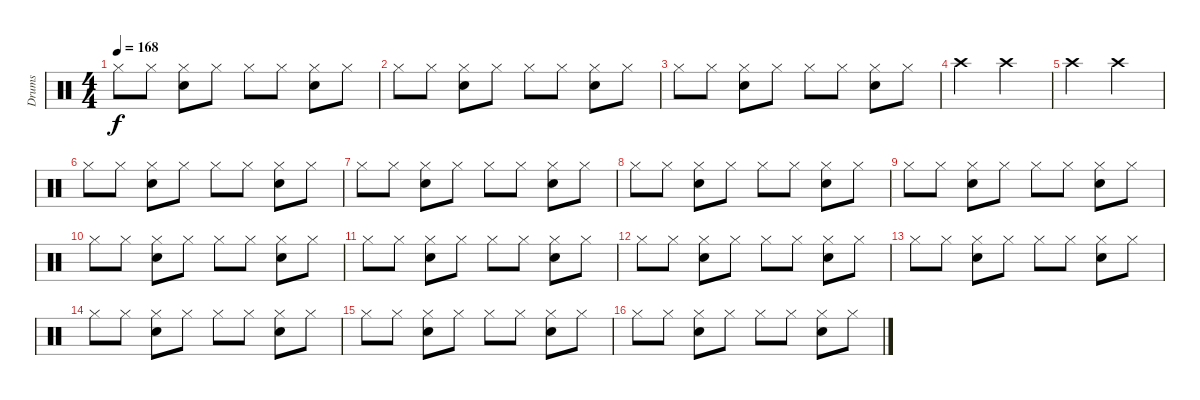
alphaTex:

\track ("Drums" "Drums") {instrument percussion}
\staff {score}
\articulation defaults
\ts (4 4)
\tempo 168
\clef neutral
\ks c "Hi-Hat (closed)".8{dy f} "Hi-Hat (closed)".8
("Hi-Hat (closed)" "Electric Snare (hit)").8 "Hi-Hat (closed)".8 "Hi-Hat (closed)".8 "Hi-Hat (closed)".8 ("Hi-Hat (closed)" "Electric Snare (hit)").8 "Hi-Hat (closed)".8 |
"Hi-Hat (closed)".8 "Hi-Hat (closed)".8 ("Hi-Hat (closed)" "Electric Snare (hit)").8 "Hi-Hat (closed)".8 "Hi-Hat (closed)".8 "Hi-Hat (closed)".8 ("Hi-Hat (closed)" "Electric Snare (hit)").8 "Hi-Hat (closed)".8 |
"Hi-Hat (closed)".8 "Hi-Hat (closed)".8 ("Hi-Hat (closed)" "Electric Snare (hit)").8 "Hi-Hat (closed)".8 "Hi-Hat (closed)".8 "Hi-Hat (closed)".8 ("Hi-Hat (closed)" "Electric Snare (hit)").8 "Hi-Hat (closed)".8 |
"Crash high (hit)".2 "Crash high (hit)".2 |
"Crash high (hit)".2 "Crash high (hit)".2 |
"Hi-Hat (closed)".8 "Hi-Hat (closed)".8 ("Hi-Hat (closed)" "Electric Snare (hit)").8 "Hi-Hat (closed)".8 "Hi-Hat (closed)".8 "Hi-Hat (closed)".8 ("Hi-Hat (closed)" "Electric Snare (hit)").8 "Hi-Hat (closed)".8 |
"Hi-Hat (closed)".8 "Hi-Hat (closed)".8 ("Hi-Hat (closed)" "Electric Snare (hit)").8 "Hi-Hat (closed)".8 "Hi-Hat (closed)".8 "Hi-Hat (closed)".8 ("Hi-Hat (closed)" "Electric Snare (hit)").8 "Hi-Hat (closed)".8 |
"Hi-Hat (closed)".8 "Hi-Hat (closed)".8 ("Hi-Hat (closed)" "Electric Snare (hit)").8 "Hi-Hat (closed)".8 "Hi-Hat (closed)".8 "Hi-Hat (closed)".8 ("Hi-Hat (closed)" "Electric Snare (hit)").8 "Hi-Hat (closed)".8 |
"Hi-Hat (closed)".8 "Hi-Hat (closed)".8 ("Hi-Hat (closed)" "Electric Snare (hit)").8 "Hi-Hat (closed)".8 "Hi-Hat (closed)".8 "Hi-Hat (closed)".8 ("Hi-Hat (closed)" "Electric Snare (hit)").8 "Hi-Hat (closed)".8 |
"Hi-Hat (closed)".8 "Hi-Hat (closed)".8 ("Hi-Hat (closed)" "Electric Snare (hit)").8 "Hi-Hat (closed)".8 "Hi-Hat (closed)".8 "Hi-Hat (closed)".8 ("Hi-Hat (closed)" "Electric Snare (hit)").8 "Hi-Hat (closed)".8 |
"Hi-Hat (closed)".8 "Hi-Hat (closed)".8 ("Hi-Hat (closed)" "Electric Snare (hit)").8 "Hi-Hat (closed)".8 "Hi-Hat (closed)".8 "Hi-Hat (closed)".8 ("Hi-Hat (closed)" "Electric Snare (hit)").8 "Hi-Hat (closed)".8 |
"Hi-Hat (closed)".8 "Hi-Hat (closed)".8 ("Hi-Hat (closed)" "Electric Snare (hit)").8 "Hi-Hat (closed)".8 "Hi-Hat (closed)".8 "Hi-Hat (closed)".8 ("Hi-Hat (closed)" "Electric Snare (hit)").8 "Hi-Hat (closed)".8 |
"Hi-Hat (closed)".8 "Hi-Hat (closed)".8 ("Hi-Hat (closed)" "Electric Snare (hit)").8 "Hi-Hat (closed)".8 "Hi-Hat (closed)".8 "Hi-Hat (closed)".8 ("Hi-Hat (closed)" "Electric Snare (hit)").8 "Hi-Hat (closed)".8 |
"Hi-Hat (closed)".8 "Hi-Hat (closed)".8 ("Hi-Hat (closed)" "Electric Snare (hit)").8 "Hi-Hat (closed)".8 "Hi-Hat (closed)".8 "Hi-Hat (closed)".8 ("Hi-Hat (closed)" "Electric Snare (hit)").8 "Hi-Hat (closed)".8 |
"Hi-Hat (closed)".8 "Hi-Hat (closed)".8 ("Hi-Hat (closed)" "Electric Snare (hit)").8 "Hi-Hat (closed)".8 "Hi-Hat (closed)".8 "Hi-Hat (closed)".8 ("Hi-Hat (closed)" "Electric Snare (hit)").8 "Hi-Hat (closed)".8 |
"Hi-Hat (closed)".8 "Hi-Hat (closed)".8 ("Hi-Hat (closed)" "Electric Snare (hit)").8 "Hi-Hat (closed)".8 "Hi-Hat (closed)".8 "Hi-Hat (closed)".8 ("Hi-Hat (closed)" "Electric Snare (hit)").8 "Hi-Hat (closed)".8
